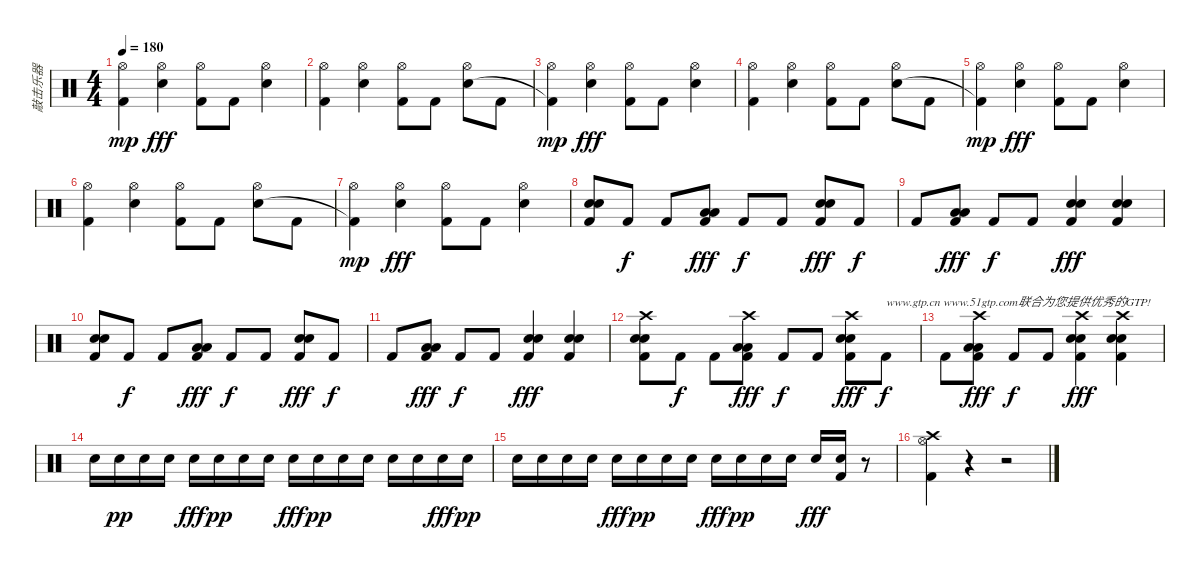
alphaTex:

\track ("敲击乐器" "敲击乐器") {instrument percussion}
\staff {score}
\articulation defaults
\ts (4 4)
\tempo 180
\clef neutral
\ks c
("Hi-Hat (open)" "Kick (hit) 2"{t}).4{dy mp} ("Hi-Hat (open)" "Electric Snare (hit)").4{dy fff} ("Hi-Hat (open)" "Kick (hit) 2").8 "Kick (hit) 2".8 ("Hi-Hat (open)" "Electric Snare (hit)").4 |
("Hi-Hat (open)" "Kick (hit) 2").4 ("Hi-Hat (open)" "Electric Snare (hit)").4 ("Hi-Hat (open)" "Kick (hit) 2").8 "Kick (hit) 2".8 ("Hi-Hat (open)" "Electric Snare (hit)").8 "Kick (hit) 2".8 |
("Hi-Hat (open)" "Kick (hit) 2"{t}).4{dy mp} ("Hi-Hat (open)" "Electric Snare (hit)").4{dy fff} ("Hi-Hat (open)" "Kick (hit) 2").8 "Kick (hit) 2".8 ("Hi-Hat (open)" "Electric Snare (hit)").4 |
("Hi-Hat (open)" "Kick (hit) 2").4 ("Hi-Hat (open)" "Electric Snare (hit)").4 ("Hi-Hat (open)" "Kick (hit) 2").8 "Kick (hit) 2".8 ("Hi-Hat (open)" "Electric Snare (hit)").8 "Kick (hit) 2".8 |
("Hi-Hat (open)" "Kick (hit) 2"{t}).4{dy mp} ("Hi-Hat (open)" "Electric Snare (hit)").4{dy fff} ("Hi-Hat (open)" "Kick (hit) 2").8 "Kick (hit) 2".8 ("Hi-Hat (open)" "Electric Snare (hit)").4 |
("Hi-Hat (open)" "Kick (hit) 2").4 ("Hi-Hat (open)" "Electric Snare (hit)").4 ("Hi-Hat (open)" "Kick (hit) 2").8 "Kick (hit) 2".8 ("Hi-Hat (open)" "Electric Snare (hit)").8 "Kick (hit) 2".8 |
("Hi-Hat (open)" "Kick (hit) 2"{t}).4{dy mp} ("Hi-Hat (open)" "Electric Snare (hit)").4{dy fff} ("Hi-Hat (open)" "Kick (hit) 2").8 "Kick (hit) 2".8 ("Hi-Hat (open)" "Electric Snare (hit)").4 |
("Electric Snare (hit)" "Electric Snare (hit)" "Kick (hit) 2").8 "Kick (hit) 2".8{dy f} "Kick (hit) 2".8 ("Low Tom (hit)" "Low Tom (hit)" "Kick (hit) 2").8{dy fff} "Kick (hit) 2".8{dy f} "Kick (hit) 2".8 ("Electric Snare (hit)" "Electric Snare (hit)" "Kick (hit) 2").8{dy fff} "Kick (hit) 2".8{dy f} |
"Kick (hit) 2".8 ("Low Tom (hit)" "Low Tom (hit)" "Kick (hit) 2").8{dy fff} "Kick (hit) 2".8{dy f} "Kick (hit) 2".8 ("Electric Snare (hit)" "Electric Snare (hit)" "Kick (hit) 2").4{dy fff} ("Electric Snare (hit)" "Electric Snare (hit)" "Kick (hit) 2").4 |
("Electric Snare (hit)" "Electric Snare (hit)" "Kick (hit) 2").8 "Kick (hit) 2".8{dy f} "Kick (hit) 2".8 ("Low Tom (hit)" "Low Tom (hit)" "Kick (hit) 2").8{dy fff} "Kick (hit) 2".8{dy f} "Kick (hit) 2".8 ("Electric Snare (hit)" "Electric Snare (hit)" "Kick (hit) 2").8{dy fff} "Kick (hit) 2".8{dy f} |
"Kick (hit) 2".8 ("Low Tom (hit)" "Low Tom (hit)" "Kick (hit) 2").8{dy fff} "Kick (hit) 2".8{dy f} "Kick (hit) 2".8 ("Electric Snare (hit)" "Electric Snare (hit)" "Kick (hit) 2").4{dy fff} ("Electric Snare (hit)" "Electric Snare (hit)" "Kick (hit) 2").4 |
("Crash high (hit)" "Electric Snare (hit)" "Electric Snare (hit)" "Kick (hit) 2").8 "Kick (hit) 2".8{dy f} "Kick (hit) 2".8 ("Crash high (hit)" "Low Tom (hit)" "Low Tom (hit)" "Kick (hit) 2").8{dy fff} "Kick (hit) 2".8{dy f} "Kick (hit) 2".8 ("Crash high (hit)" "Electric Snare (hit)" "Electric Snare (hit)" "Kick (hit) 2").8{dy fff} "Kick (hit) 2".8{txt "www.gtp.cn www.51gtp.com联合为您提供优秀的GTP!" dy f} |
"Kick (hit) 2".8 ("Crash high (hit)" "Low Tom (hit)" "Low Tom (hit)" "Kick (hit) 2").8{dy fff} "Kick (hit) 2".8{dy f} "Kick (hit) 2".8 ("Crash high (hit)" "Electric Snare (hit)" "Electric Snare (hit)" "Kick (hit) 2").4{dy fff} ("Crash high (hit)" "Electric Snare (hit)" "Electric Snare (hit)" "Kick (hit) 2").4 |
"Electric Snare (hit)".16 "Electric Snare (hit)".16{dy pp} "Electric Snare (hit)".16 "Electric Snare (hit)".16 "Electric Snare (hit)".16{dy fff} "Electric Snare (hit)".16{dy pp} "Electric Snare (hit)".16 "Electric Snare (hit)".16 "Electric Snare (hit)".16{dy fff} "Electric Snare (hit)".16{dy pp} "Electric Snare (hit)".16 "Electric Snare (hit)".16 "Electric Snare (hit)".16 "Electric Snare (hit)".16 "Electric Snare (hit)".16{dy fff} "Electric Snare (hit)".16{dy pp} |
"Electric Snare (hit)".16 "Electric Snare (hit)".16 "Electric Snare (hit)".16 "Electric Snare (hit)".16 "Electric Snare (hit)".16{dy fff} "Electric Snare (hit)".16{dy pp} "Electric Snare (hit)".16 "Electric Snare (hit)".16 "Electric Snare (hit)".16{dy fff} "Electric Snare (hit)".16{dy pp} "Electric Snare (hit)".16 "Electric Snare (hit)".16 "Electric Snare (hit)".16{dy fff} ("Electric Snare (hit)" "Kick (hit) 2").16 r.8 |
("Crash high (hit)" "Hi-Hat (open)" "Kick (hit) 2").4 r.4 r.2
